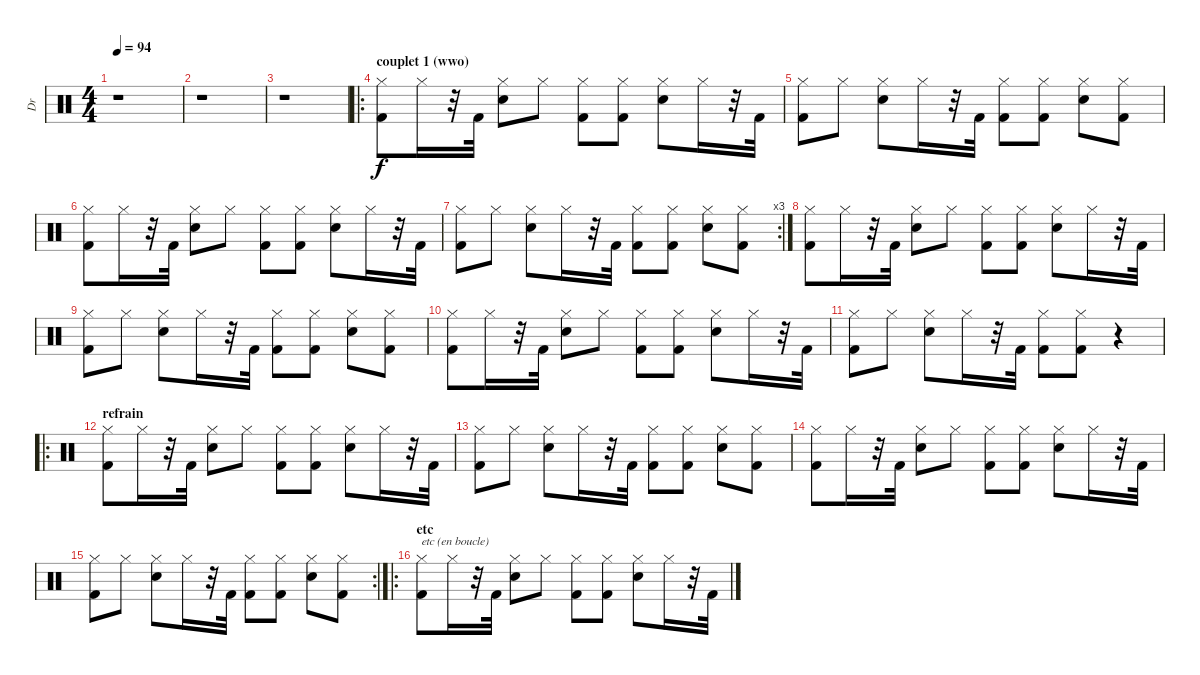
\track ("Dr" "Dr") {instrument percussion}
\staff {score}
\articulation defaults
\ts (4 4)
\tempo 94
\clef neutral
\ks c
r.1{dy f volume 16} |
r.1 |
r.1 |
\ro
\section ("" "couplet 1 (wwo)")
("Hi-Hat (closed)" "Kick (hit) 2").8 "Hi-Hat (closed)".16 r.32 "Kick (hit) 2".32 ("Hi-Hat (closed)" "Electric Snare (hit)").8 "Hi-Hat (closed)".8 ("Hi-Hat (closed)" "Kick (hit) 2").8 ("Hi-Hat (closed)" "Kick (hit) 2").8 ("Hi-Hat (closed)" "Electric Snare (hit)").8 "Hi-Hat (closed)".16 r.32 "Kick (hit) 2".32 |
("Hi-Hat (closed)" "Kick (hit) 2").8 "Hi-Hat (closed)".8 ("Hi-Hat (closed)" "Electric Snare (hit)").8 "Hi-Hat (closed)".16 r.32 "Kick (hit) 2".32 ("Hi-Hat (closed)" "Kick (hit) 2").8 ("Hi-Hat (closed)" "Kick (hit) 2").8 ("Hi-Hat (closed)" "Electric Snare (hit)").8 ("Hi-Hat (closed)" "Kick (hit) 2").8 |
("Hi-Hat (closed)" "Kick (hit) 2").8 "Hi-Hat (closed)".16 r.32 "Kick (hit) 2".32 ("Hi-Hat (closed)" "Electric Snare (hit)").8 "Hi-Hat (closed)".8 ("Hi-Hat (closed)" "Kick (hit) 2").8 ("Hi-Hat (closed)" "Kick (hit) 2").8 ("Hi-Hat (closed)" "Electric Snare (hit)").8 "Hi-Hat (closed)".16 r.32 "Kick (hit) 2".32 |
\rc 3
("Hi-Hat (closed)" "Kick (hit) 2").8 "Hi-Hat (closed)".8 ("Hi-Hat (closed)" "Electric Snare (hit)").8 "Hi-Hat (closed)".16 r.32 "Kick (hit) 2".32 ("Hi-Hat (closed)" "Kick (hit) 2").8 ("Hi-Hat (closed)" "Kick (hit) 2").8 ("Hi-Hat (closed)" "Electric Snare (hit)").8 ("Hi-Hat (closed)" "Kick (hit) 2").8 |
("Hi-Hat (closed)" "Kick (hit) 2").8 "Hi-Hat (closed)".16 r.32 "Kick (hit) 2".32 ("Hi-Hat (closed)" "Electric Snare (hit)").8 "Hi-Hat (closed)".8 ("Hi-Hat (closed)" "Kick (hit) 2").8 ("Hi-Hat (closed)" "Kick (hit) 2").8 ("Hi-Hat (closed)" "Electric Snare (hit)").8 "Hi-Hat (closed)".16 r.32 "Kick (hit) 2".32 |
("Hi-Hat (closed)" "Kick (hit) 2").8 "Hi-Hat (closed)".8 ("Hi-Hat (closed)" "Electric Snare (hit)").8 "Hi-Hat (closed)".16 r.32 "Kick (hit) 2".32 ("Hi-Hat (closed)" "Kick (hit) 2").8 ("Hi-Hat (closed)" "Kick (hit) 2").8 ("Hi-Hat (closed)" "Electric Snare (hit)").8 ("Hi-Hat (closed)" "Kick (hit) 2").8 |
("Hi-Hat (closed)" "Kick (hit) 2").8 "Hi-Hat (closed)".16 r.32 "Kick (hit) 2".32 ("Hi-Hat (closed)" "Electric Snare (hit)").8 "Hi-Hat (closed)".8 ("Hi-Hat (closed)" "Kick (hit) 2").8 ("Hi-Hat (closed)" "Kick (hit) 2").8 ("Hi-Hat (closed)" "Electric Snare (hit)").8 "Hi-Hat (closed)".16 r.32 "Kick (hit) 2".32 |
("Hi-Hat (closed)" "Kick (hit) 2").8 "Hi-Hat (closed)".8 ("Hi-Hat (closed)" "Electric Snare (hit)").8 "Hi-Hat (closed)".16 r.32 "Kick (hit) 2".32 ("Hi-Hat (closed)" "Kick (hit) 2").8 ("Hi-Hat (closed)" "Kick (hit) 2").8 r.4 |
\ro
\section ("" "refrain")
("Hi-Hat (closed)" "Kick (hit) 2").8 "Hi-Hat (closed)".16 r.32 "Kick (hit) 2".32 ("Hi-Hat (closed)" "Electric Snare (hit)").8 "Hi-Hat (closed)".8 ("Hi-Hat (closed)" "Kick (hit) 2").8 ("Hi-Hat (closed)" "Kick (hit) 2").8 ("Hi-Hat (closed)" "Electric Snare (hit)").8 "Hi-Hat (closed)".16 r.32 "Kick (hit) 2".32 |
("Hi-Hat (closed)" "Kick (hit) 2").8 "Hi-Hat (closed)".8 ("Hi-Hat (closed)" "Electric Snare (hit)").8 "Hi-Hat (closed)".16 r.32 "Kick (hit) 2".32 ("Hi-Hat (closed)" "Kick (hit) 2").8 ("Hi-Hat (closed)" "Kick (hit) 2").8 ("Hi-Hat (closed)" "Electric Snare (hit)").8 ("Hi-Hat (closed)" "Kick (hit) 2").8 |
("Hi-Hat (closed)" "Kick (hit) 2").8 "Hi-Hat (closed)".16 r.32 "Kick (hit) 2".32 ("Hi-Hat (closed)" "Electric Snare (hit)").8 "Hi-Hat (closed)".8 ("Hi-Hat (closed)" "Kick (hit) 2").8 ("Hi-Hat (closed)" "Kick (hit) 2").8 ("Hi-Hat (closed)" "Electric Snare (hit)").8 "Hi-Hat (closed)".16 r.32 "Kick (hit) 2".32 |
\rc 2
("Hi-Hat (closed)" "Kick (hit) 2").8 "Hi-Hat (closed)".8 ("Hi-Hat (closed)" "Electric Snare (hit)").8 "Hi-Hat (closed)".16 r.32 "Kick (hit) 2".32 ("Hi-Hat (closed)" "Kick (hit) 2").8 ("Hi-Hat (closed)" "Kick (hit) 2").8 ("Hi-Hat (closed)" "Electric Snare (hit)").8 ("Hi-Hat (closed)" "Kick (hit) 2").8 |
\ro
\section ("" "etc")
("Hi-Hat (closed)" "Kick (hit) 2").8{txt "etc (en boucle)"} "Hi-Hat (closed)".16 r.32 "Kick (hit) 2".32 ("Hi-Hat (closed)" "Electric Snare (hit)").8 "Hi-Hat (closed)".8 ("Hi-Hat (closed)" "Kick (hit) 2").8 ("Hi-Hat (closed)" "Kick (hit) 2").8 ("Hi-Hat (closed)" "Electric Snare (hit)").8 "Hi-Hat (closed)".16 r.32 "Kick (hit) 2".32
